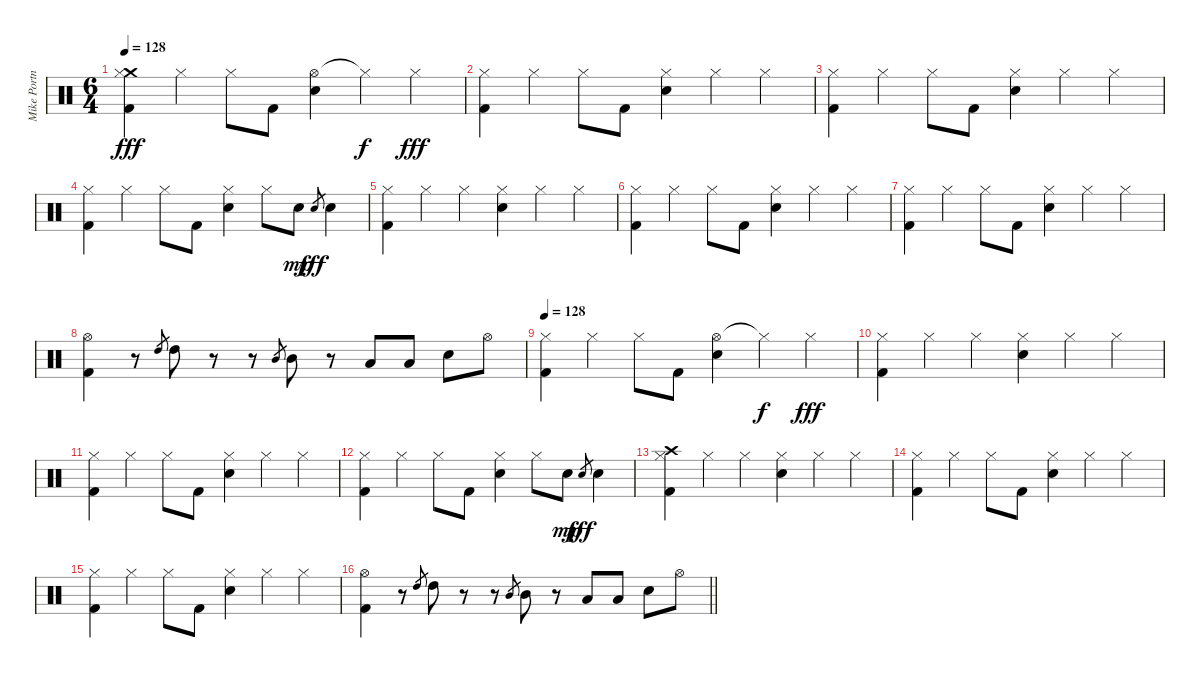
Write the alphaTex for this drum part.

\track ("Mike Portnoy" "Mike Portn") {instrument percussion}
\staff {score}
\articulation defaults
\ts (6 4)
\tempo 128
\clef neutral
\ks c
("Crash medium (hit)" "Hi-Hat (closed)" "Kick (hit) 2").4{dy fff} "Hi-Hat (closed)".4 "Hi-Hat (closed)".8 "Kick (hit) 2".8 ("Hi-Hat (open)" "Electric Snare (hit)").4 "Hi-Hat (closed)"{t}.4{dy f} "Hi-Hat (closed)".4{dy fff} |
("Hi-Hat (closed)" "Kick (hit) 2").4 "Hi-Hat (closed)".4 "Hi-Hat (closed)".8 "Kick (hit) 2".8 ("Hi-Hat (closed)" "Electric Snare (hit)").4 "Hi-Hat (closed)".4 "Hi-Hat (closed)".4 |
("Hi-Hat (closed)" "Kick (hit) 2").4 "Hi-Hat (closed)".4 "Hi-Hat (closed)".8 "Kick (hit) 2".8 ("Hi-Hat (closed)" "Electric Snare (hit)").4 "Hi-Hat (closed)".4 "Hi-Hat (closed)".4 |
("Hi-Hat (closed)" "Kick (hit) 2").4 "Hi-Hat (closed)".4 "Hi-Hat (closed)".8 "Kick (hit) 2".8 ("Hi-Hat (closed)" "Electric Snare (hit)").4 "Hi-Hat (closed)".8 "Electric Snare (hit)".8{dy mp} "Electric Snare (hit)".8{gr dy fff} "Electric Snare (hit)".4 |
("Hi-Hat (closed)" "Kick (hit) 2").4 "Hi-Hat (closed)".4 "Hi-Hat (closed)".4 ("Hi-Hat (closed)" "Electric Snare (hit)").4 "Hi-Hat (closed)".4 "Hi-Hat (closed)".4 |
("Hi-Hat (closed)" "Kick (hit) 2").4 "Hi-Hat (closed)".4 "Hi-Hat (closed)".8 "Kick (hit) 2".8 ("Hi-Hat (closed)" "Electric Snare (hit)").4 "Hi-Hat (closed)".4 "Hi-Hat (closed)".4 |
("Hi-Hat (closed)" "Kick (hit) 2").4 "Hi-Hat (closed)".4 "Hi-Hat (closed)".8 "Kick (hit) 2".8 ("Hi-Hat (closed)" "Electric Snare (hit)").4 "Hi-Hat (closed)".4 "Hi-Hat (closed)".4 |
("Hi-Hat (open)" "Kick (hit) 2").4 r.8 "High Tom (hit)".8{gr} "High Tom (hit)".8 r.8 r.8 "Mid Tom (hit)".8{gr} "Mid Tom (hit)".8 r.8 "Low Tom (hit)".8 "Low Tom (hit)".8 "Electric Snare (hit)".8 "Hi-Hat (open)".8 |
\tempo 128
("Hi-Hat (closed)" "Kick (hit) 2").4 "Hi-Hat (closed)".4 "Hi-Hat (closed)".8 "Kick (hit) 2".8 ("Hi-Hat (open)" "Electric Snare (hit)").4 "Hi-Hat (closed)"{t}.4{dy f} "Hi-Hat (closed)".4{dy fff} |
("Hi-Hat (closed)" "Kick (hit) 2").4 "Hi-Hat (closed)".4 "Hi-Hat (closed)".4 ("Hi-Hat (closed)" "Electric Snare (hit)").4 "Hi-Hat (closed)".4 "Hi-Hat (closed)".4 |
("Hi-Hat (closed)" "Kick (hit) 2").4 "Hi-Hat (closed)".4 "Hi-Hat (closed)".8 "Kick (hit) 2".8 ("Hi-Hat (closed)" "Electric Snare (hit)").4 "Hi-Hat (closed)".4 "Hi-Hat (closed)".4 |
("Hi-Hat (closed)" "Kick (hit) 2").4 "Hi-Hat (closed)".4 "Hi-Hat (closed)".8 "Kick (hit) 2".8 ("Hi-Hat (closed)" "Electric Snare (hit)").4 "Hi-Hat (closed)".8 "Electric Snare (hit)".8{dy mp} "Electric Snare (hit)".8{gr dy fff} "Electric Snare (hit)".4 |
("Crash high (hit)" "Hi-Hat (closed)" "Kick (hit) 2").4 "Hi-Hat (closed)".4 "Hi-Hat (closed)".4 ("Hi-Hat (closed)" "Electric Snare (hit)").4 "Hi-Hat (closed)".4 "Hi-Hat (closed)".4 |
("Hi-Hat (closed)" "Kick (hit) 2").4 "Hi-Hat (closed)".4 "Hi-Hat (closed)".8 "Kick (hit) 2".8 ("Hi-Hat (closed)" "Electric Snare (hit)").4 "Hi-Hat (closed)".4 "Hi-Hat (closed)".4 |
("Hi-Hat (closed)" "Kick (hit) 2").4 "Hi-Hat (closed)".4 "Hi-Hat (closed)".8 "Kick (hit) 2".8 ("Hi-Hat (closed)" "Electric Snare (hit)").4 "Hi-Hat (closed)".4 "Hi-Hat (closed)".4 |
\barLineRight lightlight
("Hi-Hat (open)" "Kick (hit) 2").4 r.8 "High Tom (hit)".8{gr} "High Tom (hit)".8 r.8 r.8 "Mid Tom (hit)".8{gr} "Mid Tom (hit)".8 r.8 "Low Tom (hit)".8 "Low Tom (hit)".8 "Electric Snare (hit)".8 "Hi-Hat (open)".8
